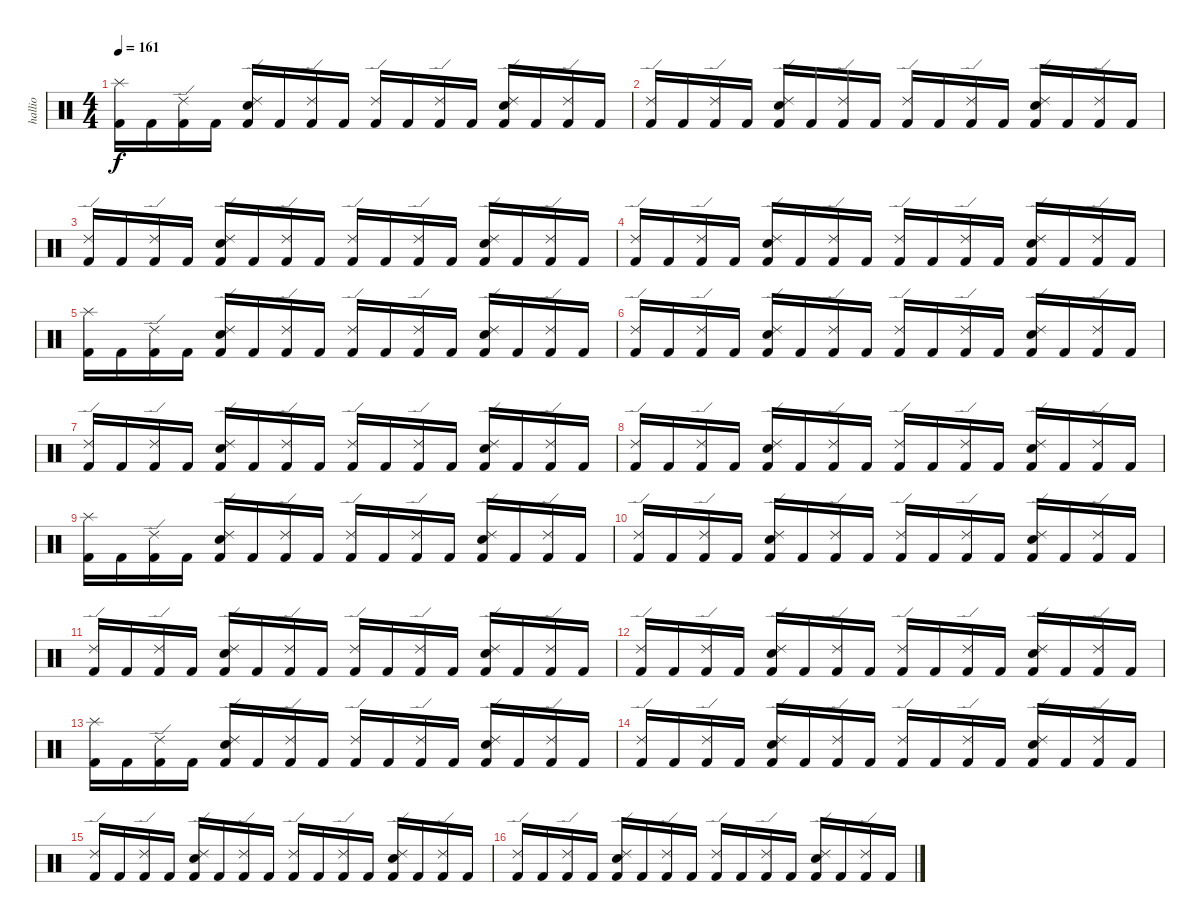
\track ("hallio" "hallio") {instrument percussion}
\staff {score}
\articulation defaults
\ts (4 4)
\tempo 161
\clef neutral
\ks c
("Kick (hit) 2" "Splash (hit)").16{dy f} "Kick (hit) 2".16 ("Kick (hit) 2" "Ride (edge) 2").16 "Kick (hit) 2".16 ("Kick (hit) 2" "Snare (hit) 2" "Ride (edge) 2").16 "Kick (hit) 2".16 ("Kick (hit) 2" "Ride (edge) 2").16 "Kick (hit) 2".16 ("Kick (hit) 2" "Ride (edge) 2").16 "Kick (hit) 2".16 ("Kick (hit) 2" "Ride (edge) 2").16 "Kick (hit) 2".16 ("Kick (hit) 2" "Snare (hit) 2" "Ride (edge) 2").16 "Kick (hit) 2".16 ("Kick (hit) 2" "Ride (edge) 2").16 "Kick (hit) 2".16 |
("Kick (hit) 2" "Ride (edge) 2").16 "Kick (hit) 2".16 ("Kick (hit) 2" "Ride (edge) 2").16 "Kick (hit) 2".16 ("Kick (hit) 2" "Snare (hit) 2" "Ride (edge) 2").16 "Kick (hit) 2".16 ("Kick (hit) 2" "Ride (edge) 2").16 "Kick (hit) 2".16 ("Kick (hit) 2" "Ride (edge) 2").16 "Kick (hit) 2".16 ("Kick (hit) 2" "Ride (edge) 2").16 "Kick (hit) 2".16 ("Kick (hit) 2" "Snare (hit) 2" "Ride (edge) 2").16 "Kick (hit) 2".16 ("Kick (hit) 2" "Ride (edge) 2").16 "Kick (hit) 2".16 |
("Kick (hit) 2" "Ride (edge) 2").16 "Kick (hit) 2".16 ("Kick (hit) 2" "Ride (edge) 2").16 "Kick (hit) 2".16 ("Kick (hit) 2" "Snare (hit) 2" "Ride (edge) 2").16 "Kick (hit) 2".16 ("Kick (hit) 2" "Ride (edge) 2").16 "Kick (hit) 2".16 ("Kick (hit) 2" "Ride (edge) 2").16 "Kick (hit) 2".16 ("Kick (hit) 2" "Ride (edge) 2").16 "Kick (hit) 2".16 ("Kick (hit) 2" "Snare (hit) 2" "Ride (edge) 2").16 "Kick (hit) 2".16 ("Kick (hit) 2" "Ride (edge) 2").16 "Kick (hit) 2".16 |
("Kick (hit) 2" "Ride (edge) 2").16 "Kick (hit) 2".16 ("Kick (hit) 2" "Ride (edge) 2").16 "Kick (hit) 2".16 ("Kick (hit) 2" "Snare (hit) 2" "Ride (edge) 2").16 "Kick (hit) 2".16 ("Kick (hit) 2" "Ride (edge) 2").16 "Kick (hit) 2".16 ("Kick (hit) 2" "Ride (edge) 2").16 "Kick (hit) 2".16 ("Kick (hit) 2" "Ride (edge) 2").16 "Kick (hit) 2".16 ("Kick (hit) 2" "Snare (hit) 2" "Ride (edge) 2").16 "Kick (hit) 2".16 ("Kick (hit) 2" "Ride (edge) 2").16 "Kick (hit) 2".16 |
("Kick (hit) 2" "Splash (hit)").16 "Kick (hit) 2".16 ("Kick (hit) 2" "Ride (edge) 2").16 "Kick (hit) 2".16 ("Kick (hit) 2" "Snare (hit) 2" "Ride (edge) 2").16 "Kick (hit) 2".16 ("Kick (hit) 2" "Ride (edge) 2").16 "Kick (hit) 2".16 ("Kick (hit) 2" "Ride (edge) 2").16 "Kick (hit) 2".16 ("Kick (hit) 2" "Ride (edge) 2").16 "Kick (hit) 2".16 ("Kick (hit) 2" "Snare (hit) 2" "Ride (edge) 2").16 "Kick (hit) 2".16 ("Kick (hit) 2" "Ride (edge) 2").16 "Kick (hit) 2".16 |
("Kick (hit) 2" "Ride (edge) 2").16 "Kick (hit) 2".16 ("Kick (hit) 2" "Ride (edge) 2").16 "Kick (hit) 2".16 ("Kick (hit) 2" "Snare (hit) 2" "Ride (edge) 2").16 "Kick (hit) 2".16 ("Kick (hit) 2" "Ride (edge) 2").16 "Kick (hit) 2".16 ("Kick (hit) 2" "Ride (edge) 2").16 "Kick (hit) 2".16 ("Kick (hit) 2" "Ride (edge) 2").16 "Kick (hit) 2".16 ("Kick (hit) 2" "Snare (hit) 2" "Ride (edge) 2").16 "Kick (hit) 2".16 ("Kick (hit) 2" "Ride (edge) 2").16 "Kick (hit) 2".16 |
("Kick (hit) 2" "Ride (edge) 2").16 "Kick (hit) 2".16 ("Kick (hit) 2" "Ride (edge) 2").16 "Kick (hit) 2".16 ("Kick (hit) 2" "Snare (hit) 2" "Ride (edge) 2").16 "Kick (hit) 2".16 ("Kick (hit) 2" "Ride (edge) 2").16 "Kick (hit) 2".16 ("Kick (hit) 2" "Ride (edge) 2").16 "Kick (hit) 2".16 ("Kick (hit) 2" "Ride (edge) 2").16 "Kick (hit) 2".16 ("Kick (hit) 2" "Snare (hit) 2" "Ride (edge) 2").16 "Kick (hit) 2".16 ("Kick (hit) 2" "Ride (edge) 2").16 "Kick (hit) 2".16 |
("Kick (hit) 2" "Ride (edge) 2").16 "Kick (hit) 2".16 ("Kick (hit) 2" "Ride (edge) 2").16 "Kick (hit) 2".16 ("Kick (hit) 2" "Snare (hit) 2" "Ride (edge) 2").16 "Kick (hit) 2".16 ("Kick (hit) 2" "Ride (edge) 2").16 "Kick (hit) 2".16 ("Kick (hit) 2" "Ride (edge) 2").16 "Kick (hit) 2".16 ("Kick (hit) 2" "Ride (edge) 2").16 "Kick (hit) 2".16 ("Kick (hit) 2" "Snare (hit) 2" "Ride (edge) 2").16 "Kick (hit) 2".16 ("Kick (hit) 2" "Ride (edge) 2").16 "Kick (hit) 2".16 |
("Kick (hit) 2" "Splash (hit)").16 "Kick (hit) 2".16 ("Kick (hit) 2" "Ride (edge) 2").16 "Kick (hit) 2".16 ("Kick (hit) 2" "Snare (hit) 2" "Ride (edge) 2").16 "Kick (hit) 2".16 ("Kick (hit) 2" "Ride (edge) 2").16 "Kick (hit) 2".16 ("Kick (hit) 2" "Ride (edge) 2").16 "Kick (hit) 2".16 ("Kick (hit) 2" "Ride (edge) 2").16 "Kick (hit) 2".16 ("Kick (hit) 2" "Snare (hit) 2" "Ride (edge) 2").16 "Kick (hit) 2".16 ("Kick (hit) 2" "Ride (edge) 2").16 "Kick (hit) 2".16 |
("Kick (hit) 2" "Ride (edge) 2").16 "Kick (hit) 2".16 ("Kick (hit) 2" "Ride (edge) 2").16 "Kick (hit) 2".16 ("Kick (hit) 2" "Snare (hit) 2" "Ride (edge) 2").16 "Kick (hit) 2".16 ("Kick (hit) 2" "Ride (edge) 2").16 "Kick (hit) 2".16 ("Kick (hit) 2" "Ride (edge) 2").16 "Kick (hit) 2".16 ("Kick (hit) 2" "Ride (edge) 2").16 "Kick (hit) 2".16 ("Kick (hit) 2" "Snare (hit) 2" "Ride (edge) 2").16 "Kick (hit) 2".16 ("Kick (hit) 2" "Ride (edge) 2").16 "Kick (hit) 2".16 |
("Kick (hit) 2" "Ride (edge) 2").16 "Kick (hit) 2".16 ("Kick (hit) 2" "Ride (edge) 2").16 "Kick (hit) 2".16 ("Kick (hit) 2" "Snare (hit) 2" "Ride (edge) 2").16 "Kick (hit) 2".16 ("Kick (hit) 2" "Ride (edge) 2").16 "Kick (hit) 2".16 ("Kick (hit) 2" "Ride (edge) 2").16 "Kick (hit) 2".16 ("Kick (hit) 2" "Ride (edge) 2").16 "Kick (hit) 2".16 ("Kick (hit) 2" "Snare (hit) 2" "Ride (edge) 2").16 "Kick (hit) 2".16 ("Kick (hit) 2" "Ride (edge) 2").16 "Kick (hit) 2".16 |
("Kick (hit) 2" "Ride (edge) 2").16 "Kick (hit) 2".16 ("Kick (hit) 2" "Ride (edge) 2").16 "Kick (hit) 2".16 ("Kick (hit) 2" "Snare (hit) 2" "Ride (edge) 2").16 "Kick (hit) 2".16 ("Kick (hit) 2" "Ride (edge) 2").16 "Kick (hit) 2".16 ("Kick (hit) 2" "Ride (edge) 2").16 "Kick (hit) 2".16 ("Kick (hit) 2" "Ride (edge) 2").16 "Kick (hit) 2".16 ("Kick (hit) 2" "Snare (hit) 2" "Ride (edge) 2").16 "Kick (hit) 2".16 ("Kick (hit) 2" "Ride (edge) 2").16 "Kick (hit) 2".16 |
("Kick (hit) 2" "Splash (hit)").16 "Kick (hit) 2".16 ("Kick (hit) 2" "Ride (edge) 2").16 "Kick (hit) 2".16 ("Kick (hit) 2" "Snare (hit) 2" "Ride (edge) 2").16 "Kick (hit) 2".16 ("Kick (hit) 2" "Ride (edge) 2").16 "Kick (hit) 2".16 ("Kick (hit) 2" "Ride (edge) 2").16 "Kick (hit) 2".16 ("Kick (hit) 2" "Ride (edge) 2").16 "Kick (hit) 2".16 ("Kick (hit) 2" "Snare (hit) 2" "Ride (edge) 2").16 "Kick (hit) 2".16 ("Kick (hit) 2" "Ride (edge) 2").16 "Kick (hit) 2".16 |
("Kick (hit) 2" "Ride (edge) 2").16 "Kick (hit) 2".16 ("Kick (hit) 2" "Ride (edge) 2").16 "Kick (hit) 2".16 ("Kick (hit) 2" "Snare (hit) 2" "Ride (edge) 2").16 "Kick (hit) 2".16 ("Kick (hit) 2" "Ride (edge) 2").16 "Kick (hit) 2".16 ("Kick (hit) 2" "Ride (edge) 2").16 "Kick (hit) 2".16 ("Kick (hit) 2" "Ride (edge) 2").16 "Kick (hit) 2".16 ("Kick (hit) 2" "Snare (hit) 2" "Ride (edge) 2").16 "Kick (hit) 2".16 ("Kick (hit) 2" "Ride (edge) 2").16 "Kick (hit) 2".16 |
("Kick (hit) 2" "Ride (edge) 2").16 "Kick (hit) 2".16 ("Kick (hit) 2" "Ride (edge) 2").16 "Kick (hit) 2".16 ("Kick (hit) 2" "Snare (hit) 2" "Ride (edge) 2").16 "Kick (hit) 2".16 ("Kick (hit) 2" "Ride (edge) 2").16 "Kick (hit) 2".16 ("Kick (hit) 2" "Ride (edge) 2").16 "Kick (hit) 2".16 ("Kick (hit) 2" "Ride (edge) 2").16 "Kick (hit) 2".16 ("Kick (hit) 2" "Snare (hit) 2" "Ride (edge) 2").16 "Kick (hit) 2".16 ("Kick (hit) 2" "Ride (edge) 2").16 "Kick (hit) 2".16 |
("Kick (hit) 2" "Ride (edge) 2").16 "Kick (hit) 2".16 ("Kick (hit) 2" "Ride (edge) 2").16 "Kick (hit) 2".16 ("Kick (hit) 2" "Snare (hit) 2" "Ride (edge) 2").16 "Kick (hit) 2".16 ("Kick (hit) 2" "Ride (edge) 2").16 "Kick (hit) 2".16 ("Kick (hit) 2" "Ride (edge) 2").16 "Kick (hit) 2".16 ("Kick (hit) 2" "Ride (edge) 2").16 "Kick (hit) 2".16 ("Kick (hit) 2" "Snare (hit) 2" "Ride (edge) 2").16 "Kick (hit) 2".16 ("Kick (hit) 2" "Ride (edge) 2").16 "Kick (hit) 2".16
